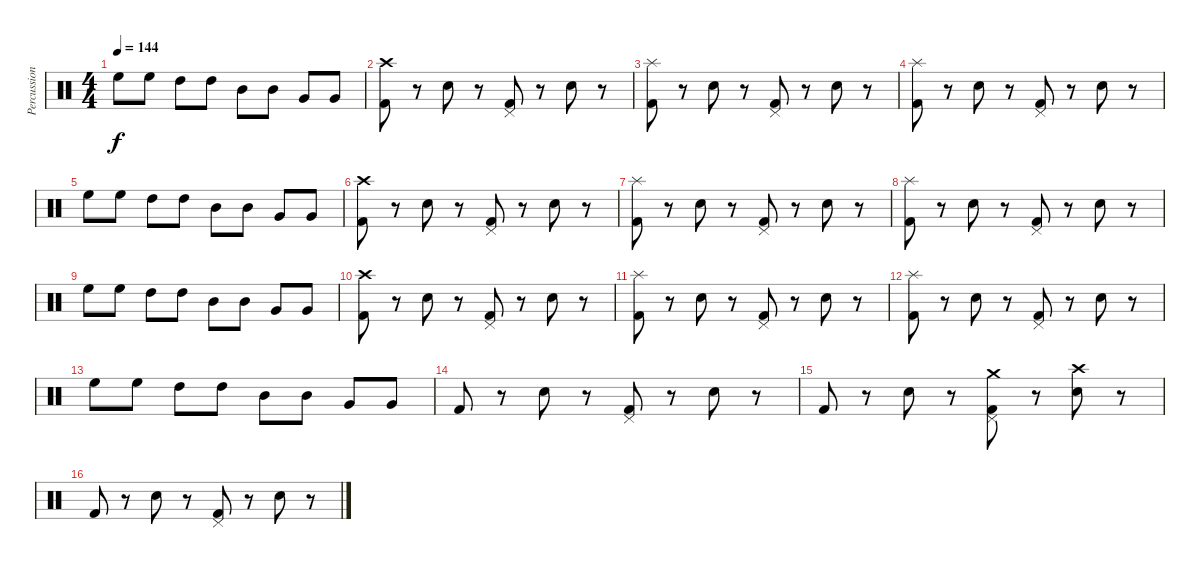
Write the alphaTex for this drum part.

\track ("Percussion" "Percussion") {instrument percussion}
\staff {score}
\articulation defaults
\ts (4 4)
\tempo 144
\clef neutral
\ks c "High Floor Tom (hit)".8{dy f} "High Floor Tom (hit)".8 "High Tom (hit)".8 "High Tom (hit)".8 "Mid Tom (hit)".8 "Mid Tom (hit)".8 "Very Low Tom (hit)".8 "Very Low Tom (hit)".8
|
("Crash high (hit)" "Kick (hit) 2").8 r.8 "Snare (hit) 2".8 r.8 ("Pedal Hi-Hat (hit)" "Kick (hit) 2").8 r.8 "Snare (hit) 2".8 r.8 |
("Kick (hit) 2" "Splash (hit)").8 r.8 "Snare (hit) 2".8 r.8 ("Pedal Hi-Hat (hit)" "Kick (hit) 2").8 r.8 "Snare (hit) 2".8 r.8 |
("Kick (hit) 2" "Splash (hit)").8 r.8 "Snare (hit) 2".8 r.8 ("Pedal Hi-Hat (hit)" "Kick (hit) 2").8 r.8 "Snare (hit) 2".8 r.8 |
"High Floor Tom (hit)".8 "High Floor Tom (hit)".8 "High Tom (hit)".8 "High Tom (hit)".8 "Mid Tom (hit)".8 "Mid Tom (hit)".8 "Very Low Tom (hit)".8 "Very Low Tom (hit)".8 |
("Crash high (hit)" "Kick (hit) 2").8 r.8 "Snare (hit) 2".8 r.8 ("Pedal Hi-Hat (hit)" "Kick (hit) 2").8 r.8 "Snare (hit) 2".8 r.8 |
("Kick (hit) 2" "Splash (hit)").8 r.8 "Snare (hit) 2".8 r.8 ("Pedal Hi-Hat (hit)" "Kick (hit) 2").8 r.8 "Snare (hit) 2".8 r.8 |
("Kick (hit) 2" "Splash (hit)").8 r.8 "Snare (hit) 2".8 r.8 ("Pedal Hi-Hat (hit)" "Kick (hit) 2").8 r.8 "Snare (hit) 2".8 r.8 |
"High Floor Tom (hit)".8 "High Floor Tom (hit)".8 "High Tom (hit)".8 "High Tom (hit)".8 "Mid Tom (hit)".8 "Mid Tom (hit)".8 "Very Low Tom (hit)".8 "Very Low Tom (hit)".8 |
("Crash high (hit)" "Kick (hit) 2").8 r.8 "Snare (hit) 2".8 r.8 ("Pedal Hi-Hat (hit)" "Kick (hit) 2").8 r.8 "Snare (hit) 2".8 r.8 |
("Kick (hit) 2" "Splash (hit)").8 r.8 "Snare (hit) 2".8 r.8 ("Pedal Hi-Hat (hit)" "Kick (hit) 2").8 r.8 "Snare (hit) 2".8 r.8 |
("Kick (hit) 2" "Splash (hit)").8 r.8 "Snare (hit) 2".8 r.8 ("Pedal Hi-Hat (hit)" "Kick (hit) 2").8 r.8 "Snare (hit) 2".8 r.8 |
"High Floor Tom (hit)".8 "High Floor Tom (hit)".8 "High Tom (hit)".8 "High Tom (hit)".8 "Mid Tom (hit)".8 "Mid Tom (hit)".8 "Very Low Tom (hit)".8 "Very Low Tom (hit)".8 |
"Kick (hit) 2".8 r.8 "Snare (hit) 2".8 r.8 ("Pedal Hi-Hat (hit)" "Kick (hit) 2").8 r.8 "Snare (hit) 2".8 r.8 |
"Kick (hit) 2".8 r.8 "Snare (hit) 2".8 r.8 ("Pedal Hi-Hat (hit)" "Kick (hit) 2" "Crash medium (hit)").8 r.8 ("Snare (hit) 2" "Crash high (hit)").8 r.8 |
"Kick (hit) 2".8 r.8 "Snare (hit) 2".8 r.8 ("Pedal Hi-Hat (hit)" "Kick (hit) 2").8 r.8 "Snare (hit) 2".8 r.8
